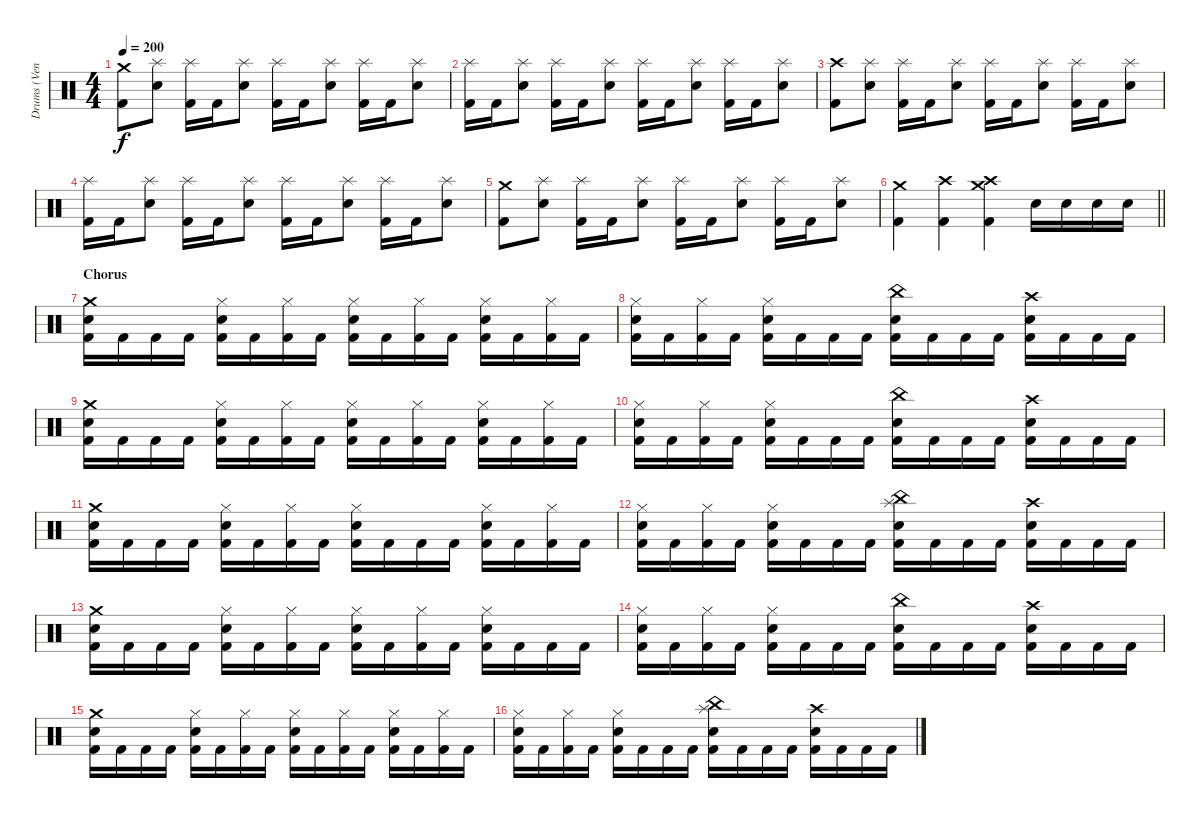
\track ("Drums (Ventor)" "Drums (Ven") {instrument percussion}
\staff {score}
\articulation defaults
\ts (4 4)
\tempo 200
\clef neutral
\ks c
("Crash medium (hit)" "Kick (hit) 2").8{dy f} ("Electric Snare (hit)" "Splash (hit)").8 ("Splash (hit)" "Kick (hit) 2").16 "Kick (hit) 2".16 ("Electric Snare (hit)" "Splash (hit)").8 ("Splash (hit)" "Kick (hit) 2").16 "Kick (hit) 2".16 ("Electric Snare (hit)" "Splash (hit)").8 ("Splash (hit)" "Kick (hit) 2").16 "Kick (hit) 2".16 ("Electric Snare (hit)" "Splash (hit)").8 |
("Splash (hit)" "Kick (hit) 2").16 "Kick (hit) 2".16 ("Electric Snare (hit)" "Splash (hit)").8 ("Splash (hit)" "Kick (hit) 2").16 "Kick (hit) 2".16 ("Electric Snare (hit)" "Splash (hit)").8 ("Splash (hit)" "Kick (hit) 2").16 "Kick (hit) 2".16 ("Electric Snare (hit)" "Splash (hit)").8 ("Splash (hit)" "Kick (hit) 2").16 "Kick (hit) 2".16 ("Electric Snare (hit)" "Splash (hit)").8 |
("Crash high (hit)" "Kick (hit) 2").8 ("Electric Snare (hit)" "Splash (hit)").8 ("Splash (hit)" "Kick (hit) 2").16 "Kick (hit) 2".16 ("Electric Snare (hit)" "Splash (hit)").8 ("Splash (hit)" "Kick (hit) 2").16 "Kick (hit) 2".16 ("Electric Snare (hit)" "Splash (hit)").8 ("Splash (hit)" "Kick (hit) 2").16 "Kick (hit) 2".16 ("Electric Snare (hit)" "Splash (hit)").8 |
("Splash (hit)" "Kick (hit) 2").16 "Kick (hit) 2".16 ("Electric Snare (hit)" "Splash (hit)").8 ("Splash (hit)" "Kick (hit) 2").16 "Kick (hit) 2".16 ("Electric Snare (hit)" "Splash (hit)").8 ("Splash (hit)" "Kick (hit) 2").16 "Kick (hit) 2".16 ("Electric Snare (hit)" "Splash (hit)").8 ("Splash (hit)" "Kick (hit) 2").16 "Kick (hit) 2".16 ("Electric Snare (hit)" "Splash (hit)").8 |
("Crash medium (hit)" "Kick (hit) 2").8 ("Electric Snare (hit)" "Splash (hit)").8 ("Splash (hit)" "Kick (hit) 2").16 "Kick (hit) 2".16 ("Electric Snare (hit)" "Splash (hit)").8 ("Splash (hit)" "Kick (hit) 2").16 "Kick (hit) 2".16 ("Electric Snare (hit)" "Splash (hit)").8 ("Splash (hit)" "Kick (hit) 2").16 "Kick (hit) 2".16 ("Electric Snare (hit)" "Splash (hit)").8 |
\barLineRight lightlight
("Crash medium (hit)" "Kick (hit) 2").4 ("Crash high (hit)" "Kick (hit) 2").4 ("Crash medium (hit)" "Crash high (hit)" "Kick (hit) 2").4 "Electric Snare (hit)".16 "Electric Snare (hit)".16 "Electric Snare (hit)".16 "Electric Snare (hit)".16 |
\section ("" "Chorus")
("Electric Snare (hit)" "Crash medium (hit)" "Kick (hit) 2").16 "Kick (hit) 2".16 "Kick (hit) 2".16 "Kick (hit) 2".16 ("Electric Snare (hit)" "Hi-Hat (closed)" "Kick (hit) 2").16 "Kick (hit) 2".16 ("Hi-Hat (closed)" "Kick (hit) 2").16 "Kick (hit) 2".16 ("Electric Snare (hit)" "Hi-Hat (closed)" "Kick (hit) 2").16 "Kick (hit) 2".16 ("Hi-Hat (closed)" "Kick (hit) 2").16 "Kick (hit) 2".16 ("Electric Snare (hit)" "Hi-Hat (closed)" "Kick (hit) 2").16 "Kick (hit) 2".16 ("Hi-Hat (closed)" "Kick (hit) 2").16 "Kick (hit) 2".16 |
("Electric Snare (hit)" "Hi-Hat (closed)" "Kick (hit) 2").16 "Kick (hit) 2".16 ("Hi-Hat (closed)" "Kick (hit) 2").16 "Kick (hit) 2".16 ("Electric Snare (hit)" "Hi-Hat (closed)" "Kick (hit) 2").16 "Kick (hit) 2".16 "Kick (hit) 2".16 "Kick (hit) 2".16 ("Electric Snare (hit)" "China (hit)" "Kick (hit) 2").16 "Kick (hit) 2".16 "Kick (hit) 2".16 "Kick (hit) 2".16 ("Electric Snare (hit)" "Crash high (hit)" "Kick (hit) 2").16 "Kick (hit) 2".16 "Kick (hit) 2".16 "Kick (hit) 2".16 |
("Electric Snare (hit)" "Crash medium (hit)" "Kick (hit) 2").16 "Kick (hit) 2".16 "Kick (hit) 2".16 "Kick (hit) 2".16 ("Electric Snare (hit)" "Hi-Hat (closed)" "Kick (hit) 2").16 "Kick (hit) 2".16 ("Hi-Hat (closed)" "Kick (hit) 2").16 "Kick (hit) 2".16 ("Electric Snare (hit)" "Hi-Hat (closed)" "Kick (hit) 2").16 "Kick (hit) 2".16 ("Hi-Hat (closed)" "Kick (hit) 2").16 "Kick (hit) 2".16 ("Electric Snare (hit)" "Hi-Hat (closed)" "Kick (hit) 2").16 "Kick (hit) 2".16 ("Hi-Hat (closed)" "Kick (hit) 2").16 "Kick (hit) 2".16 |
("Electric Snare (hit)" "Hi-Hat (closed)" "Kick (hit) 2").16 "Kick (hit) 2".16 ("Hi-Hat (closed)" "Kick (hit) 2").16 "Kick (hit) 2".16 ("Electric Snare (hit)" "Hi-Hat (closed)" "Kick (hit) 2").16 "Kick (hit) 2".16 "Kick (hit) 2".16 "Kick (hit) 2".16 ("Electric Snare (hit)" "China (hit)" "Kick (hit) 2").16 "Kick (hit) 2".16 "Kick (hit) 2".16 "Kick (hit) 2".16 ("Electric Snare (hit)" "Crash high (hit)" "Kick (hit) 2").16 "Kick (hit) 2".16 "Kick (hit) 2".16 "Kick (hit) 2".16 |
("Electric Snare (hit)" "Crash medium (hit)" "Kick (hit) 2").16 "Kick (hit) 2".16 "Kick (hit) 2".16 "Kick (hit) 2".16 ("Electric Snare (hit)" "Hi-Hat (closed)" "Kick (hit) 2").16 "Kick (hit) 2".16 ("Hi-Hat (closed)" "Kick (hit) 2").16 "Kick (hit) 2".16 ("Electric Snare (hit)" "Hi-Hat (closed)" "Kick (hit) 2").16 "Kick (hit) 2".16 "Kick (hit) 2".16 "Kick (hit) 2".16 ("Electric Snare (hit)" "Hi-Hat (closed)" "Kick (hit) 2").16 "Kick (hit) 2".16 ("Hi-Hat (closed)" "Kick (hit) 2").16 "Kick (hit) 2".16 |
("Electric Snare (hit)" "Hi-Hat (closed)" "Kick (hit) 2").16 "Kick (hit) 2".16 ("Hi-Hat (closed)" "Kick (hit) 2").16 "Kick (hit) 2".16 ("Electric Snare (hit)" "Hi-Hat (closed)" "Kick (hit) 2").16 "Kick (hit) 2".16 "Kick (hit) 2".16 "Kick (hit) 2".16 ("Electric Snare (hit)" "China (hit)" "Splash (hit)" "Kick (hit) 2").16 "Kick (hit) 2".16 "Kick (hit) 2".16 "Kick (hit) 2".16 ("Electric Snare (hit)" "Crash high (hit)" "Kick (hit) 2").16 "Kick (hit) 2".16 "Kick (hit) 2".16 "Kick (hit) 2".16 |
("Electric Snare (hit)" "Crash medium (hit)" "Kick (hit) 2").16 "Kick (hit) 2".16 "Kick (hit) 2".16 "Kick (hit) 2".16 ("Electric Snare (hit)" "Hi-Hat (closed)" "Kick (hit) 2").16 "Kick (hit) 2".16 ("Hi-Hat (closed)" "Kick (hit) 2").16 "Kick (hit) 2".16 ("Electric Snare (hit)" "Hi-Hat (closed)" "Kick (hit) 2").16 "Kick (hit) 2".16 ("Hi-Hat (closed)" "Kick (hit) 2").16 "Kick (hit) 2".16 ("Electric Snare (hit)" "Hi-Hat (closed)" "Kick (hit) 2").16 "Kick (hit) 2".16 "Kick (hit) 2".16 "Kick (hit) 2".16 |
("Electric Snare (hit)" "Hi-Hat (closed)" "Kick (hit) 2").16 "Kick (hit) 2".16 ("Hi-Hat (closed)" "Kick (hit) 2").16 "Kick (hit) 2".16 ("Electric Snare (hit)" "Hi-Hat (closed)" "Kick (hit) 2").16 "Kick (hit) 2".16 "Kick (hit) 2".16 "Kick (hit) 2".16 ("Electric Snare (hit)" "China (hit)" "Kick (hit) 2").16 "Kick (hit) 2".16 "Kick (hit) 2".16 "Kick (hit) 2".16 ("Electric Snare (hit)" "Crash high (hit)" "Kick (hit) 2").16 "Kick (hit) 2".16 "Kick (hit) 2".16 "Kick (hit) 2".16 |
("Electric Snare (hit)" "Crash medium (hit)" "Kick (hit) 2").16 "Kick (hit) 2".16 "Kick (hit) 2".16 "Kick (hit) 2".16 ("Electric Snare (hit)" "Hi-Hat (closed)" "Kick (hit) 2").16 "Kick (hit) 2".16 ("Hi-Hat (closed)" "Kick (hit) 2").16 "Kick (hit) 2".16 ("Electric Snare (hit)" "Hi-Hat (closed)" "Kick (hit) 2").16 "Kick (hit) 2".16 ("Hi-Hat (closed)" "Kick (hit) 2").16 "Kick (hit) 2".16 ("Electric Snare (hit)" "Hi-Hat (closed)" "Kick (hit) 2").16 "Kick (hit) 2".16 ("Hi-Hat (closed)" "Kick (hit) 2").16 "Kick (hit) 2".16 |
("Electric Snare (hit)" "Hi-Hat (closed)" "Kick (hit) 2").16 "Kick (hit) 2".16 ("Hi-Hat (closed)" "Kick (hit) 2").16 "Kick (hit) 2".16 ("Electric Snare (hit)" "Hi-Hat (closed)" "Kick (hit) 2").16 "Kick (hit) 2".16 "Kick (hit) 2".16 "Kick (hit) 2".16 ("Electric Snare (hit)" "China (hit)" "Splash (hit)" "Kick (hit) 2").16 "Kick (hit) 2".16 "Kick (hit) 2".16 "Kick (hit) 2".16 ("Electric Snare (hit)" "Crash high (hit)" "Kick (hit) 2").16 "Kick (hit) 2".16 "Kick (hit) 2".16 "Kick (hit) 2".16
